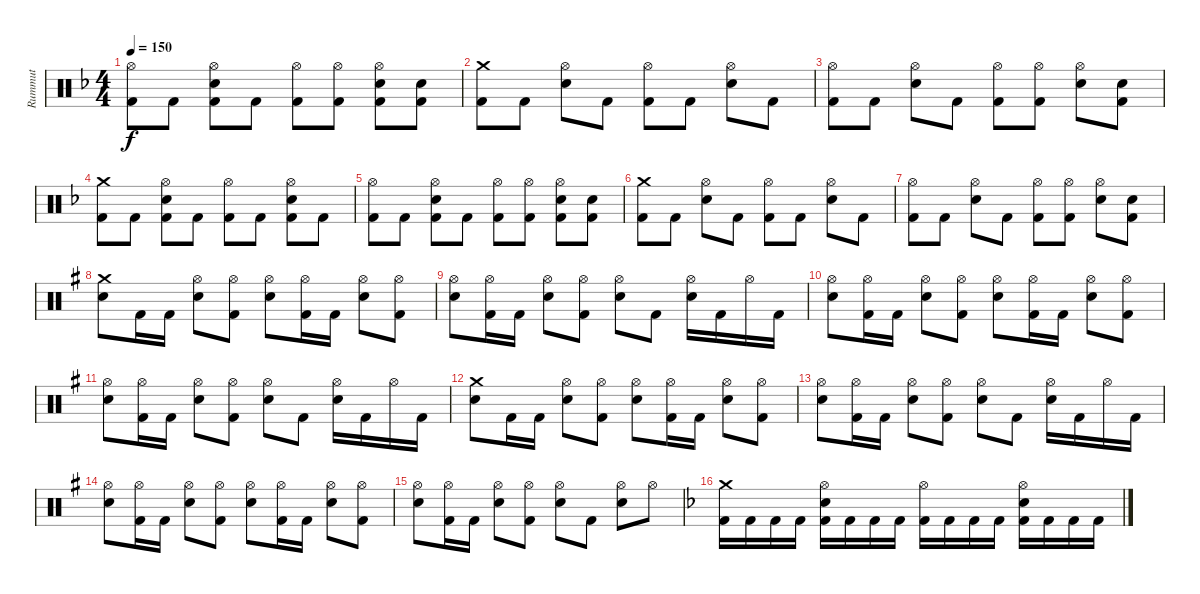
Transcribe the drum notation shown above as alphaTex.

\track ("Rummut" "Rummut") {instrument percussion}
\staff {score}
\articulation defaults
\ts (4 4)
\tempo 150
\clef neutral
\ks dminor
("Hi-Hat (open)" "Kick (hit) 2").8{dy f} "Kick (hit) 2".8 ("Hi-Hat (open)" "Snare (hit) 2" "Kick (hit) 2").8 "Kick (hit) 2".8 ("Hi-Hat (open)" "Kick (hit) 2").8 ("Hi-Hat (open)" "Kick (hit) 2").8 ("Hi-Hat (open)" "Snare (hit) 2" "Kick (hit) 2").8 ("Snare (hit) 2" "Kick (hit) 2").8 |
("Crash medium (hit)" "Kick (hit) 2").8 "Kick (hit) 2".8 ("Hi-Hat (open)" "Snare (hit) 2").8 "Kick (hit) 2".8 ("Hi-Hat (open)" "Kick (hit) 2").8 "Kick (hit) 2".8 ("Hi-Hat (open)" "Snare (hit) 2").8 "Kick (hit) 2".8 |
("Hi-Hat (open)" "Kick (hit) 2").8 "Kick (hit) 2".8 ("Hi-Hat (open)" "Snare (hit) 2").8 "Kick (hit) 2".8 ("Hi-Hat (open)" "Kick (hit) 2").8 ("Hi-Hat (open)" "Kick (hit) 2").8 ("Hi-Hat (open)" "Snare (hit) 2").8 ("Snare (hit) 2" "Kick (hit) 2").8 |
("Crash medium (hit)" "Kick (hit) 2").8 "Kick (hit) 2".8 ("Hi-Hat (open)" "Snare (hit) 2" "Kick (hit) 2").8 "Kick (hit) 2".8 ("Hi-Hat (open)" "Kick (hit) 2").8 "Kick (hit) 2".8 ("Hi-Hat (open)" "Snare (hit) 2" "Kick (hit) 2").8 "Kick (hit) 2".8 |
("Hi-Hat (open)" "Kick (hit) 2").8 "Kick (hit) 2".8 ("Hi-Hat (open)" "Snare (hit) 2" "Kick (hit) 2").8 "Kick (hit) 2".8 ("Hi-Hat (open)" "Kick (hit) 2").8 ("Hi-Hat (open)" "Kick (hit) 2").8 ("Hi-Hat (open)" "Snare (hit) 2" "Kick (hit) 2").8 ("Snare (hit) 2" "Kick (hit) 2").8 |
("Crash medium (hit)" "Kick (hit) 2").8 "Kick (hit) 2".8 ("Hi-Hat (open)" "Snare (hit) 2").8 "Kick (hit) 2".8 ("Hi-Hat (open)" "Kick (hit) 2").8 "Kick (hit) 2".8 ("Hi-Hat (open)" "Snare (hit) 2").8 "Kick (hit) 2".8 |
("Hi-Hat (open)" "Kick (hit) 2").8 "Kick (hit) 2".8 ("Hi-Hat (open)" "Snare (hit) 2").8 "Kick (hit) 2".8 ("Hi-Hat (open)" "Kick (hit) 2").8 ("Hi-Hat (open)" "Kick (hit) 2").8 ("Hi-Hat (open)" "Snare (hit) 2").8 ("Snare (hit) 2" "Kick (hit) 2").8 |
\ks g
("Crash medium (hit)" "Snare (hit) 2").8 "Kick (hit) 2".16 "Kick (hit) 2".16 ("Hi-Hat (open)" "Snare (hit) 2").8 ("Hi-Hat (open)" "Kick (hit) 2").8 ("Hi-Hat (open)" "Snare (hit) 2").8 ("Hi-Hat (open)" "Kick (hit) 2").16 "Kick (hit) 2".16 ("Hi-Hat (open)" "Snare (hit) 2").8 ("Hi-Hat (open)" "Kick (hit) 2").8 |
("Hi-Hat (open)" "Snare (hit) 2").8 ("Hi-Hat (open)" "Kick (hit) 2").16 "Kick (hit) 2".16 ("Hi-Hat (open)" "Snare (hit) 2").8 ("Hi-Hat (open)" "Kick (hit) 2").8 ("Hi-Hat (open)" "Snare (hit) 2").8 "Kick (hit) 2".8 ("Hi-Hat (open)" "Snare (hit) 2").16 "Kick (hit) 2".16 "Hi-Hat (open)".16 "Kick (hit) 2".16 |
("Hi-Hat (open)" "Snare (hit) 2").8 ("Hi-Hat (open)" "Kick (hit) 2").16 "Kick (hit) 2".16 ("Hi-Hat (open)" "Snare (hit) 2").8 ("Hi-Hat (open)" "Kick (hit) 2").8 ("Hi-Hat (open)" "Snare (hit) 2").8 ("Hi-Hat (open)" "Kick (hit) 2").16 "Kick (hit) 2".16 ("Hi-Hat (open)" "Snare (hit) 2").8 ("Hi-Hat (open)" "Kick (hit) 2").8 |
("Hi-Hat (open)" "Snare (hit) 2").8 ("Hi-Hat (open)" "Kick (hit) 2").16 "Kick (hit) 2".16 ("Hi-Hat (open)" "Snare (hit) 2").8 ("Hi-Hat (open)" "Kick (hit) 2").8 ("Hi-Hat (open)" "Snare (hit) 2").8 "Kick (hit) 2".8 ("Hi-Hat (open)" "Snare (hit) 2").16 "Kick (hit) 2".16 "Hi-Hat (open)".16 "Kick (hit) 2".16 |
("Crash medium (hit)" "Snare (hit) 2").8 "Kick (hit) 2".16 "Kick (hit) 2".16 ("Hi-Hat (open)" "Snare (hit) 2").8 ("Hi-Hat (open)" "Kick (hit) 2").8 ("Hi-Hat (open)" "Snare (hit) 2").8 ("Hi-Hat (open)" "Kick (hit) 2").16 "Kick (hit) 2".16 ("Hi-Hat (open)" "Snare (hit) 2").8 ("Hi-Hat (open)" "Kick (hit) 2").8 |
("Hi-Hat (open)" "Snare (hit) 2").8 ("Hi-Hat (open)" "Kick (hit) 2").16 "Kick (hit) 2".16 ("Hi-Hat (open)" "Snare (hit) 2").8 ("Hi-Hat (open)" "Kick (hit) 2").8 ("Hi-Hat (open)" "Snare (hit) 2").8 "Kick (hit) 2".8 ("Hi-Hat (open)" "Snare (hit) 2").16 "Kick (hit) 2".16 "Hi-Hat (open)".16 "Kick (hit) 2".16 |
("Hi-Hat (open)" "Snare (hit) 2").8 ("Hi-Hat (open)" "Kick (hit) 2").16 "Kick (hit) 2".16 ("Hi-Hat (open)" "Snare (hit) 2").8 ("Hi-Hat (open)" "Kick (hit) 2").8 ("Hi-Hat (open)" "Snare (hit) 2").8 ("Hi-Hat (open)" "Kick (hit) 2").16 "Kick (hit) 2".16 ("Hi-Hat (open)" "Snare (hit) 2").8 ("Hi-Hat (open)" "Kick (hit) 2").8 |
("Hi-Hat (open)" "Snare (hit) 2").8 ("Hi-Hat (open)" "Kick (hit) 2").16 "Kick (hit) 2".16 ("Hi-Hat (open)" "Snare (hit) 2").8 ("Hi-Hat (open)" "Kick (hit) 2").8 ("Hi-Hat (open)" "Snare (hit) 2").8 "Kick (hit) 2".8 ("Hi-Hat (open)" "Snare (hit) 2").8 "Hi-Hat (open)".8 |
\ks dminor
("Crash medium (hit)" "Kick (hit) 2").16 "Kick (hit) 2".16 "Kick (hit) 2".16 "Kick (hit) 2".16 ("Hi-Hat (open)" "Snare (hit) 2" "Kick (hit) 2").16 "Kick (hit) 2".16 "Kick (hit) 2".16 "Kick (hit) 2".16 ("Hi-Hat (open)" "Kick (hit) 2").16 "Kick (hit) 2".16 "Kick (hit) 2".16 "Kick (hit) 2".16 ("Hi-Hat (open)" "Snare (hit) 2" "Kick (hit) 2").16 "Kick (hit) 2".16 "Kick (hit) 2".16 "Kick (hit) 2".16
